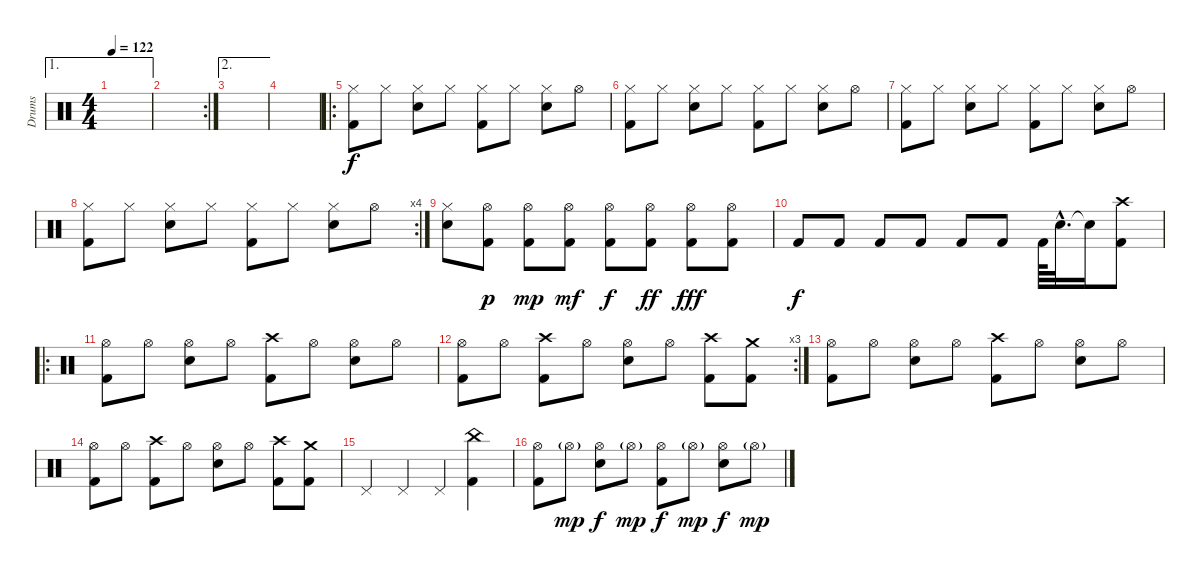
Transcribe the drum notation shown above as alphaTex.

\track ("Drums" "Drums") {instrument percussion}
\staff {score}
\articulation defaults
\ae 1
\ts (4 4)
\tempo 122
\clef neutral
\ks c
|
\rc 2
|
\ae 2
|
|
\ro
("Hi-Hat (closed)" "Kick (hit) 2").8 "Hi-Hat (closed)".8 ("Hi-Hat (closed)" "Snare (hit) 2").8 "Hi-Hat (closed)".8 ("Hi-Hat (closed)" "Kick (hit) 2").8 "Hi-Hat (closed)".8 ("Hi-Hat (closed)" "Snare (hit) 2").8 "Hi-Hat (open)".8 |
("Hi-Hat (closed)" "Kick (hit) 2").8 "Hi-Hat (closed)".8 ("Hi-Hat (closed)" "Snare (hit) 2").8 "Hi-Hat (closed)".8 ("Hi-Hat (closed)" "Kick (hit) 2").8 "Hi-Hat (closed)".8 ("Hi-Hat (closed)" "Snare (hit) 2").8 "Hi-Hat (open)".8 |
("Hi-Hat (closed)" "Kick (hit) 2").8 "Hi-Hat (closed)".8 ("Hi-Hat (closed)" "Snare (hit) 2").8 "Hi-Hat (closed)".8 ("Hi-Hat (closed)" "Kick (hit) 2").8 "Hi-Hat (closed)".8 ("Hi-Hat (closed)" "Snare (hit) 2").8 "Hi-Hat (open)".8 |
\rc 4
("Hi-Hat (closed)" "Kick (hit) 2").8 "Hi-Hat (closed)".8 ("Hi-Hat (closed)" "Snare (hit) 2").8 "Hi-Hat (closed)".8 ("Hi-Hat (closed)" "Kick (hit) 2").8 "Hi-Hat (closed)".8 ("Hi-Hat (closed)" "Snare (hit) 2").8 "Hi-Hat (open)".8 |
("Hi-Hat (closed)" "Snare (hit) 2").8 ("Hi-Hat (open)" "Kick (hit) 2").8{dy p} ("Hi-Hat (open)" "Kick (hit) 2").8{dy mp} ("Hi-Hat (open)" "Kick (hit) 2").8{dy mf} ("Hi-Hat (open)" "Kick (hit) 2").8{dy f} ("Hi-Hat (open)" "Kick (hit) 2").8{dy ff} ("Hi-Hat (open)" "Kick (hit) 2").8{dy fff} ("Hi-Hat (open)" "Kick (hit) 2").8 |
"Kick (hit) 2".8{dy f} "Kick (hit) 2".8 "Kick (hit) 2".8 "Kick (hit) 2".8 "Kick (hit) 2".8 "Kick (hit) 2".8 "Kick (hit) 2".64 "Snare (hit) 2"{hac}.32{d} "Snare (hit) 2"{t}.16 ("Crash high (hit)" "Kick (hit) 2").8 |
\ro
("Hi-Hat (open)" "Kick (hit) 2").8 "Hi-Hat (open)".8 ("Hi-Hat (open)" "Snare (hit) 2").8 "Hi-Hat (open)".8 ("Crash high (hit)" "Kick (hit) 2").8 "Hi-Hat (open)".8 ("Hi-Hat (open)" "Snare (hit) 2").8 "Hi-Hat (open)".8 |
\rc 3
("Hi-Hat (open)" "Kick (hit) 2").8 "Hi-Hat (open)".8 ("Crash high (hit)" "Kick (hit) 2").8 "Hi-Hat (open)".8 ("Hi-Hat (open)" "Snare (hit) 2").8 "Hi-Hat (open)".8 ("Crash high (hit)" "Kick (hit) 2").8 ("Crash medium (hit)" "Kick (hit) 2").8 |
("Hi-Hat (open)" "Kick (hit) 2").8 "Hi-Hat (open)".8 ("Hi-Hat (open)" "Snare (hit) 2").8 "Hi-Hat (open)".8 ("Crash high (hit)" "Kick (hit) 2").8 "Hi-Hat (open)".8 ("Hi-Hat (open)" "Snare (hit) 2").8 "Hi-Hat (open)".8 |
("Hi-Hat (open)" "Kick (hit) 2").8 "Hi-Hat (open)".8 ("Crash high (hit)" "Kick (hit) 2").8 "Hi-Hat (open)".8 ("Hi-Hat (open)" "Snare (hit) 2").8 "Hi-Hat (open)".8 ("Crash high (hit)" "Kick (hit) 2").8 ("Crash medium (hit)" "Kick (hit) 2").8 |
"Pedal Hi-Hat (hit)".4 "Pedal Hi-Hat (hit)".4 "Pedal Hi-Hat (hit)".4 ("Kick (hit) 2" "China (hit)").4 |
("Hi-Hat (open)" "Kick (hit) 2").8 "Hi-Hat (open)"{g}.8{dy mp} ("Hi-Hat (open)" "Snare (hit) 2").8{dy f} "Hi-Hat (open)"{g}.8{dy mp} ("Hi-Hat (open)" "Kick (hit) 2").8{dy f} "Hi-Hat (open)"{g}.8{dy mp} ("Hi-Hat (open)" "Snare (hit) 2").8{dy f} "Hi-Hat (open)"{g}.8{dy mp}
